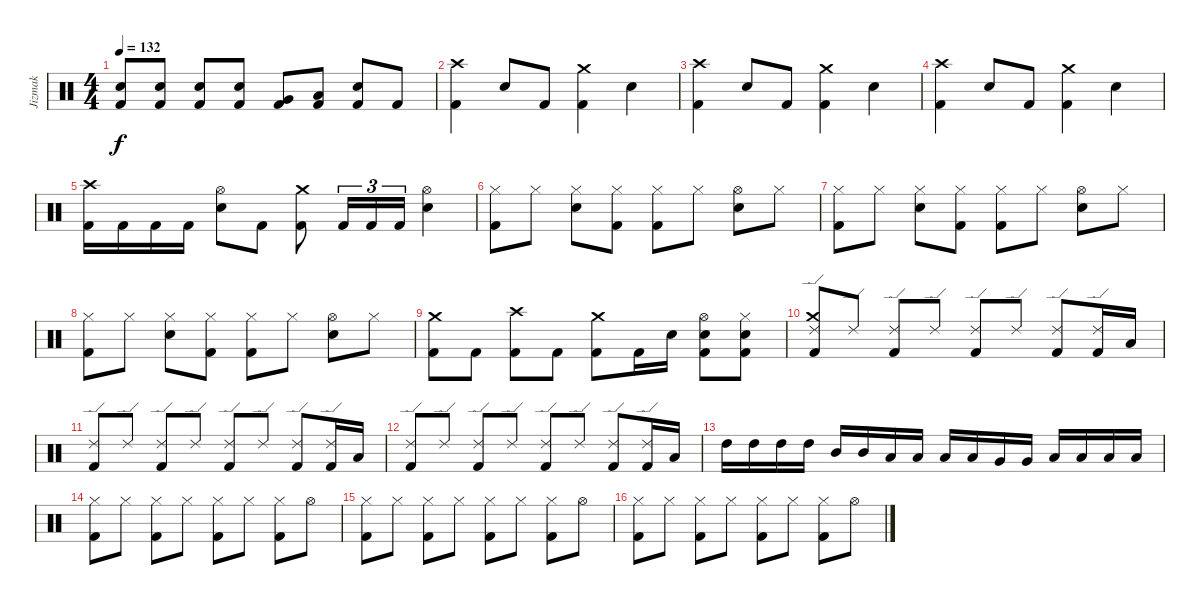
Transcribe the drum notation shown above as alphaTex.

\track ("Jizmak" "Jizmak") {instrument percussion}
\staff {score}
\articulation defaults
\ts (4 4)
\tempo 132
\clef neutral
\ks c
("Snare (hit) 2" "Kick (hit) 2").8{dy f} ("Snare (hit) 2" "Kick (hit) 2").8 ("Snare (hit) 2" "Kick (hit) 2").8 ("Snare (hit) 2" "Kick (hit) 2").8 ("Very Low Tom (hit)" "Kick (hit) 2").8 ("Low Floor Tom (hit)" "Kick (hit) 2").8 ("Snare (hit) 2" "Kick (hit) 2").8 "Kick (hit) 2".8 |
("Crash high (hit)" "Kick (hit) 2").4 "Snare (hit) 2".8 "Kick (hit) 2".8 ("Crash medium (hit)" "Kick (hit) 2").4 "Snare (hit) 2".4 |
("Crash high (hit)" "Kick (hit) 2").4 "Snare (hit) 2".8 "Kick (hit) 2".8 ("Crash medium (hit)" "Kick (hit) 2").4 "Snare (hit) 2".4 |
("Crash high (hit)" "Kick (hit) 2").4 "Snare (hit) 2".8 "Kick (hit) 2".8 ("Crash medium (hit)" "Kick (hit) 2").4 "Snare (hit) 2".4 |
("Crash high (hit)" "Kick (hit) 2").16 "Kick (hit) 2".16 "Kick (hit) 2".16 "Kick (hit) 2".16 ("Hi-Hat (open)" "Snare (hit) 2").8 "Kick (hit) 2".8 ("Crash medium (hit)" "Kick (hit) 2").8 "Kick (hit) 2".16{tu (3 2)} "Kick (hit) 2".16{tu (3 2)} "Kick (hit) 2".16{tu (3 2)} ("Hi-Hat (open)" "Snare (hit) 2").4 |
("Hi-Hat (closed)" "Kick (hit) 2").8 "Hi-Hat (closed)".8 ("Hi-Hat (closed)" "Snare (hit) 2").8 ("Hi-Hat (closed)" "Kick (hit) 2").8 ("Hi-Hat (closed)" "Kick (hit) 2").8 "Hi-Hat (closed)".8 ("Hi-Hat (open)" "Snare (hit) 2").8 "Hi-Hat (closed)".8 |
("Hi-Hat (closed)" "Kick (hit) 2").8 "Hi-Hat (closed)".8 ("Hi-Hat (closed)" "Snare (hit) 2").8 ("Hi-Hat (closed)" "Kick (hit) 2").8 ("Hi-Hat (closed)" "Kick (hit) 2").8 "Hi-Hat (closed)".8 ("Hi-Hat (open)" "Snare (hit) 2").8 "Hi-Hat (closed)".8 |
("Hi-Hat (closed)" "Kick (hit) 2").8 "Hi-Hat (closed)".8 ("Hi-Hat (closed)" "Snare (hit) 2").8 ("Hi-Hat (closed)" "Kick (hit) 2").8 ("Hi-Hat (closed)" "Kick (hit) 2").8 "Hi-Hat (closed)".8 ("Hi-Hat (open)" "Snare (hit) 2").8 "Hi-Hat (closed)".8 |
("Crash medium (hit)" "Kick (hit) 2").8 "Kick (hit) 2".8 ("Crash high (hit)" "Kick (hit) 2").8 "Kick (hit) 2".8 ("Crash medium (hit)" "Kick (hit) 2").8 "Kick (hit) 2".16 "Snare (hit) 2".16 ("Hi-Hat (open)" "Kick (hit) 2" "Snare (hit) 2").8 ("Hi-Hat (closed)" "Kick (hit) 2" "Snare (hit) 2").8 |
("Ride (edge) 2" "Kick (hit) 2" "Crash medium (hit)").8 "Ride (edge) 2".8 ("Ride (edge) 2" "Kick (hit) 2").8 "Ride (edge) 2".8 ("Ride (edge) 2" "Kick (hit) 2").8 "Ride (edge) 2".8 ("Ride (edge) 2" "Kick (hit) 2").8 ("Ride (edge) 2" "Kick (hit) 2").16 "Low Floor Tom (hit)".16 |
("Ride (edge) 2" "Kick (hit) 2").8 "Ride (edge) 2".8 ("Ride (edge) 2" "Kick (hit) 2").8 "Ride (edge) 2".8 ("Ride (edge) 2" "Kick (hit) 2").8 "Ride (edge) 2".8 ("Ride (edge) 2" "Kick (hit) 2").8 ("Ride (edge) 2" "Kick (hit) 2").16 "Low Floor Tom (hit)".16 |
("Ride (edge) 2" "Kick (hit) 2").8 "Ride (edge) 2".8 ("Ride (edge) 2" "Kick (hit) 2").8 "Ride (edge) 2".8 ("Ride (edge) 2" "Kick (hit) 2").8 "Ride (edge) 2".8 ("Ride (edge) 2" "Kick (hit) 2").8 ("Ride (edge) 2" "Kick (hit) 2").16 "Low Floor Tom (hit)".16 |
"High Tom (hit)".16 "High Tom (hit)".16 "High Tom (hit)".16 "High Tom (hit)".16 "Mid Tom (hit)".16 "Mid Tom (hit)".16 "Low Tom (hit)".16 "Low Tom (hit)".16 "Low Tom (hit)".16 "Low Tom (hit)".16 "Very Low Tom (hit)".16 "Very Low Tom (hit)".16 "Low Floor Tom (hit)".16 "Low Floor Tom (hit)".16 "Low Floor Tom (hit)".16 "Low Floor Tom (hit)".16 |
("Hi-Hat (closed)" "Kick (hit) 2").8 "Hi-Hat (closed)".8 ("Hi-Hat (closed)" "Kick (hit) 2").8 "Hi-Hat (closed)".8 ("Hi-Hat (closed)" "Kick (hit) 2").8 "Hi-Hat (closed)".8 ("Hi-Hat (closed)" "Kick (hit) 2").8 "Hi-Hat (open)".8 |
("Hi-Hat (closed)" "Kick (hit) 2").8 "Hi-Hat (closed)".8 ("Hi-Hat (closed)" "Kick (hit) 2").8 "Hi-Hat (closed)".8 ("Hi-Hat (closed)" "Kick (hit) 2").8 "Hi-Hat (closed)".8 ("Hi-Hat (closed)" "Kick (hit) 2").8 "Hi-Hat (open)".8 |
("Hi-Hat (closed)" "Kick (hit) 2").8 "Hi-Hat (closed)".8 ("Hi-Hat (closed)" "Kick (hit) 2").8 "Hi-Hat (closed)".8 ("Hi-Hat (closed)" "Kick (hit) 2").8 "Hi-Hat (closed)".8 ("Hi-Hat (closed)" "Kick (hit) 2").8 "Hi-Hat (open)".8
